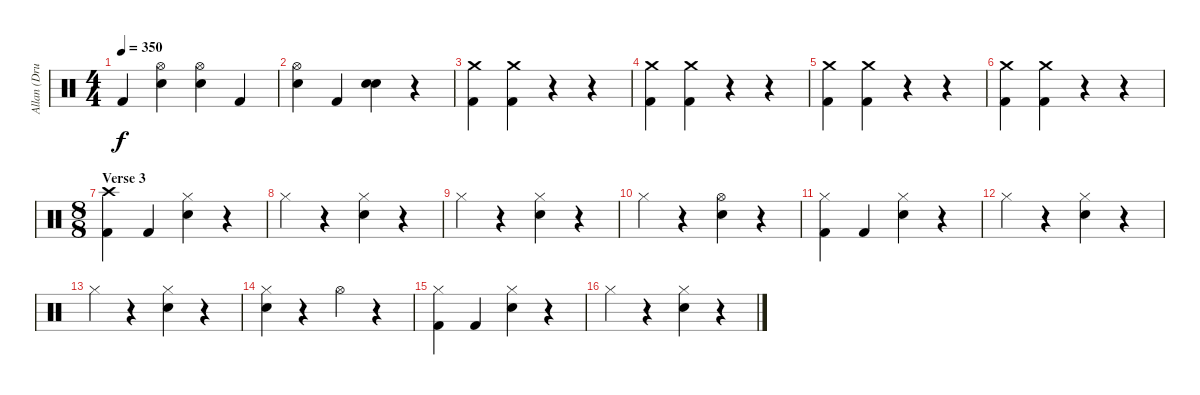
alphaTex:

\track ("Allan (Drums)" "Allan (Dru") {instrument percussion}
\staff {score}
\articulation defaults
\ts (4 4)
\tempo 350
\clef neutral
\ks c "Kick (hit) 2".4{dy f}
("Hi-Hat (open)" "Snare (hit) 2").4 ("Hi-Hat (open)" "Snare (hit) 2").4 "Kick (hit) 2".4 |
("Hi-Hat (open)" "Snare (hit) 2").4 "Kick (hit) 2".4 ("Snare (hit) 2" "Snare (hit) 2").4 r.4 |
("Crash medium (hit)" "Kick (hit) 2").4 ("Crash medium (hit)" "Kick (hit) 2").4 r.4 r.4 |
("Crash medium (hit)" "Kick (hit) 2").4 ("Crash medium (hit)" "Kick (hit) 2").4 r.4 r.4 |
("Crash medium (hit)" "Kick (hit) 2").4 ("Crash medium (hit)" "Kick (hit) 2").4 r.4 r.4 |
("Crash medium (hit)" "Kick (hit) 2").4 ("Crash medium (hit)" "Kick (hit) 2").4 r.4 r.4 |
\ts (8 8)
\section ("" "Verse 3")
("Crash high (hit)" "Kick (hit) 2").4 "Kick (hit) 2".4 ("Hi-Hat (closed)" "Snare (hit) 2").4 r.4 |
"Hi-Hat (closed)".4 r.4 ("Hi-Hat (closed)" "Snare (hit) 2").4 r.4 |
"Hi-Hat (closed)".4 r.4 ("Hi-Hat (closed)" "Snare (hit) 2").4 r.4 |
"Hi-Hat (closed)".4 r.4 ("Hi-Hat (open)" "Snare (hit) 2").4 r.4 |
("Hi-Hat (closed)" "Kick (hit) 2").4 "Kick (hit) 2".4 ("Hi-Hat (closed)" "Snare (hit) 2").4 r.4 |
"Hi-Hat (closed)".4 r.4 ("Hi-Hat (closed)" "Snare (hit) 2").4 r.4 |
"Hi-Hat (closed)".4 r.4 ("Hi-Hat (closed)" "Snare (hit) 2").4 r.4 |
("Hi-Hat (closed)" "Snare (hit) 2").4 r.4 "Hi-Hat (open)".4 r.4 |
("Hi-Hat (closed)" "Kick (hit) 2").4 "Kick (hit) 2".4 ("Hi-Hat (closed)" "Snare (hit) 2").4 r.4 |
"Hi-Hat (closed)".4 r.4 ("Hi-Hat (closed)" "Snare (hit) 2").4 r.4
